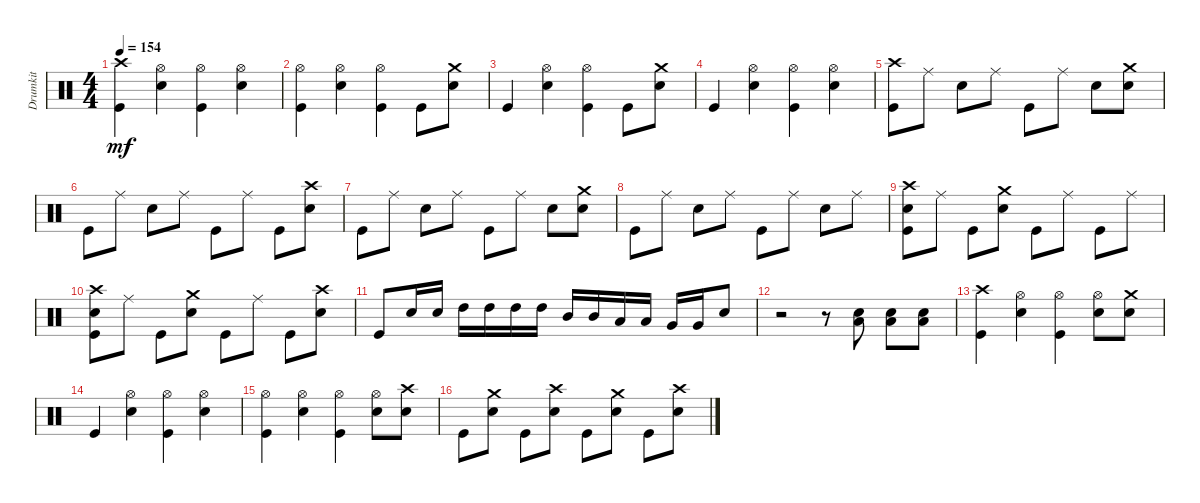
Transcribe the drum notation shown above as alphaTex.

\track ("Drumkit" "Drumkit") {instrument percussion}
\staff {score}
\articulation defaults
\ts (4 4)
\tempo 154
\clef neutral
\ks c
("Kick (hit)" "Crash high (hit)").4{dy mf} ("Snare (hit) 2" "Hi-Hat (open)").4 ("Kick (hit)" "Hi-Hat (open)").4 ("Snare (hit) 2" "Hi-Hat (open)").4 |
("Kick (hit)" "Hi-Hat (open)").4 ("Snare (hit) 2" "Hi-Hat (open)").4 ("Kick (hit)" "Hi-Hat (open)").4 "Kick (hit)".8 ("Snare (hit) 2" "Crash medium (hit)").8 |
"Kick (hit)".4 ("Snare (hit) 2" "Hi-Hat (open)").4 ("Kick (hit)" "Hi-Hat (open)").4 "Kick (hit)".8 ("Snare (hit) 2" "Crash medium (hit)").8 |
"Kick (hit)".4 ("Snare (hit) 2" "Hi-Hat (open)").4 ("Kick (hit)" "Hi-Hat (open)").4 ("Snare (hit) 2" "Hi-Hat (open)").4 |
("Kick (hit)" "Crash high (hit)").8 "Ride (middle)".8 "Snare (hit) 2".8 "Ride (middle)".8 "Kick (hit)".8 "Ride (middle)".8 "Snare (hit) 2".8 ("Snare (hit) 2" "Crash medium (hit)").8 |
"Kick (hit)".8 "Ride (middle)".8 "Snare (hit) 2".8 "Ride (middle)".8 "Kick (hit)".8 "Ride (middle)".8 "Kick (hit)".8 ("Snare (hit) 2" "Crash high (hit)").8 |
"Kick (hit)".8 "Ride (middle)".8 "Snare (hit) 2".8 "Ride (middle)".8 "Kick (hit)".8 "Ride (middle)".8 "Snare (hit) 2".8 ("Snare (hit) 2" "Crash medium (hit)").8 |
"Kick (hit)".8 "Ride (middle)".8 "Snare (hit) 2".8 "Ride (middle)".8 "Kick (hit)".8 "Ride (middle)".8 "Snare (hit) 2".8 "Ride (middle)".8 |
("Snare (hit) 2" "Kick (hit)" "Crash high (hit)").8 "Ride (middle)".8 "Kick (hit)".8 ("Snare (hit) 2" "Crash medium (hit)").8 "Kick (hit)".8 "Ride (middle)".8 "Kick (hit)".8 "Ride (middle)".8 |
("Snare (hit) 2" "Kick (hit)" "Crash high (hit)").8 "Ride (middle)".8 "Kick (hit)".8 ("Snare (hit) 2" "Crash medium (hit)").8 "Kick (hit)".8 "Ride (middle)".8 "Kick (hit)".8 ("Snare (hit) 2" "Crash high (hit)").8 |
"Kick (hit)".8 "Snare (hit) 2".16 "Snare (hit) 2".16 "High Tom (hit)".16 "High Tom (hit)".16 "High Tom (hit)".16 "High Tom (hit)".16 "Mid Tom (hit)".16 "Mid Tom (hit)".16 "Low Tom (hit)".16 "Low Tom (hit)".16 "Very Low Tom (hit)".16 "Very Low Tom (hit)".16 "Snare (hit) 2".8 |
r.2 r.8 ("Snare (hit) 2" "Low Tom (hit)").8 ("Snare (hit) 2" "Low Tom (hit)").8 ("Snare (hit) 2" "Low Tom (hit)").8 |
("Kick (hit)" "Crash high (hit)").4 ("Snare (hit) 2" "Hi-Hat (open)").4 ("Kick (hit)" "Hi-Hat (open)").4 ("Snare (hit) 2" "Hi-Hat (open)").8 ("Snare (hit) 2" "Crash medium (hit)").8 |
"Kick (hit)".4 ("Snare (hit) 2" "Hi-Hat (open)").4 ("Kick (hit)" "Hi-Hat (open)").4 ("Snare (hit) 2" "Hi-Hat (open)").4 |
("Kick (hit)" "Hi-Hat (open)").4 ("Snare (hit) 2" "Hi-Hat (open)").4 ("Kick (hit)" "Hi-Hat (open)").4 ("Snare (hit) 2" "Hi-Hat (open)").8 ("Snare (hit) 2" "Crash high (hit)").8 |
"Kick (hit)".8 ("Snare (hit) 2" "Crash medium (hit)").8 "Kick (hit)".8 ("Snare (hit) 2" "Crash high (hit)").8 "Kick (hit)".8 ("Snare (hit) 2" "Crash medium (hit)").8 "Kick (hit)".8 ("Snare (hit) 2" "Crash high (hit)").8
